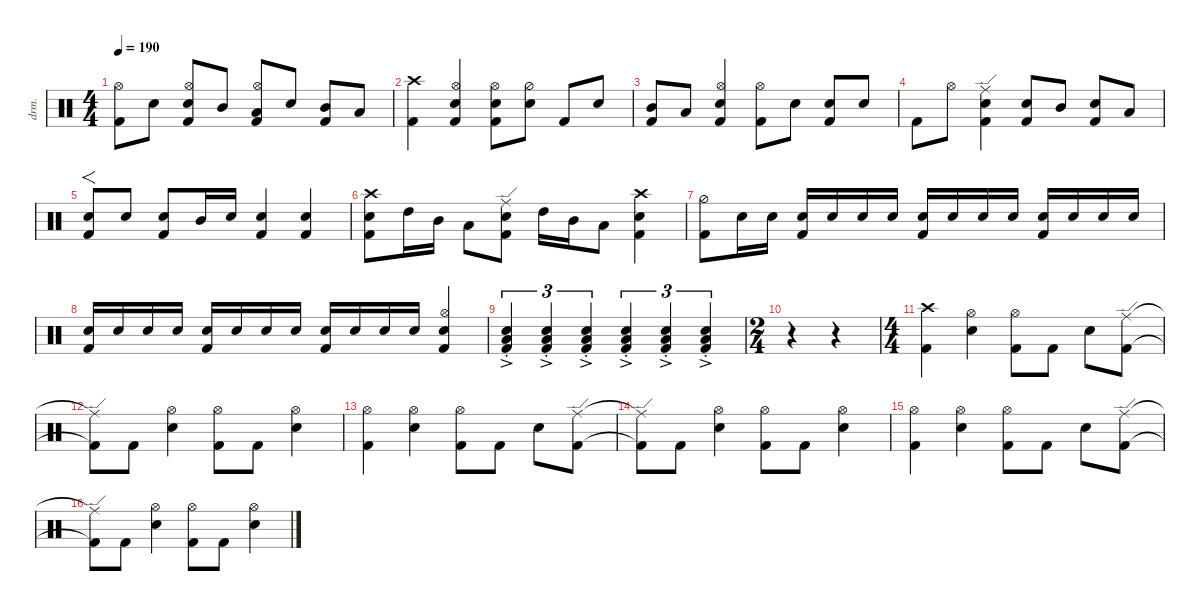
\defaultSystemsLayout 4
\hideDynamics
\bracketExtendMode nobrackets
\track ("Drumkit" "drm.") {instrument percussion}
\staff {score}
\articulation defaults
\ts (4 4)
\tempo 190
\clef neutral
\ks c
("Kick (hit) 2" "Hi-Hat (open)").8{dy mf} "Snare (hit) 2".8 ("Kick (hit) 2" "Snare (hit) 2" "Hi-Hat (open)").8 "Mid Tom (hit)".8 ("Kick (hit) 2" "Low Tom (hit)" "Hi-Hat (open)").8 "Snare (hit) 2".8 ("Kick (hit) 2" "Mid Tom (hit)").8 "Low Tom (hit)".8 |
("Kick (hit) 2" "Crash high (hit)").4 ("Kick (hit) 2" "Snare (hit) 2" "Hi-Hat (open)").4 ("Kick (hit) 2" "Snare (hit) 2" "Hi-Hat (open)").8 ("Snare (hit) 2" "Hi-Hat (half)").8 "Kick (hit) 2".8 "Snare (hit) 2".8 |
("Kick (hit) 2" "Mid Tom (hit)").8 "Low Tom (hit)".8 ("Kick (hit) 2" "Snare (hit) 2" "Hi-Hat (open)").4 ("Kick (hit) 2" "Hi-Hat (open)").8 "Snare (hit) 2".8 ("Kick (hit) 2" "Snare (hit) 2").8 "Snare (hit) 2".8 |
"Kick (hit) 2".8 "Hi-Hat (open)".8 ("Kick (hit) 2" "Snare (hit) 2" "Ride (edge)").4 ("Kick (hit) 2" "Snare (hit) 2").8 "Mid Tom (hit)".8 ("Kick (hit) 2" "Snare (hit) 2").8 "Low Tom (hit)".8 |
("Kick (hit) 2" "Snare (hit) 2").8{f} "Snare (hit) 2".8 ("Kick (hit) 2" "Snare (hit) 2").8 "Mid Tom (hit)".16 "Snare (hit) 2".16 ("Kick (hit) 2" "Snare (hit) 2").4 ("Kick (hit) 2" "Snare (hit) 2").4 |
("Kick (hit) 2" "Snare (hit) 2" "Crash high (hit)").8 "High Tom (hit)".16 "Mid Tom (hit)".16 "Low Tom (hit)".8 ("Kick (hit) 2" "Snare (hit) 2" "Ride (edge)").8 "High Tom (hit)".16 "Mid Tom (hit)".16 "Low Tom (hit)".8 ("Kick (hit) 2" "Snare (hit) 2" "Crash high (hit)").4 |
("Kick (hit) 2" "Hi-Hat (half)").8 "Snare (hit) 2".16 "Snare (hit) 2".16 ("Snare (hit) 2" "Kick (hit) 2").16 "Snare (hit) 2".16 "Snare (hit) 2".16 "Snare (hit) 2".16 ("Snare (hit) 2" "Kick (hit) 2").16 "Snare (hit) 2".16 "Snare (hit) 2".16 "Snare (hit) 2".16 ("Snare (hit) 2" "Kick (hit) 2").16 "Snare (hit) 2".16 "Snare (hit) 2".16 "Snare (hit) 2".16 |
("Snare (hit) 2" "Kick (hit) 2").16 "Snare (hit) 2".16 "Snare (hit) 2".16 "Snare (hit) 2".16 ("Snare (hit) 2" "Kick (hit) 2").16 "Snare (hit) 2".16 "Snare (hit) 2".16 "Snare (hit) 2".16 ("Snare (hit) 2" "Kick (hit) 2").16 "Snare (hit) 2".16 "Snare (hit) 2".16 "Snare (hit) 2".16 ("Kick (hit) 2" "Snare (hit) 2" "Hi-Hat (open)").4 |
("Snare (hit) 2"{ac st} "Low Tom (hit)"{ac st} "Kick (hit) 2"{ac st}).4{tu (3 2) dy p} ("Snare (hit) 2"{ac st} "Low Tom (hit)"{ac st} "Kick (hit) 2"{ac st}).4{tu (3 2)} ("Snare (hit) 2"{ac st} "Low Tom (hit)"{ac st} "Kick (hit) 2"{ac st}).4{tu (3 2)} ("Snare (hit) 2"{ac st} "Low Tom (hit)"{ac st} "Kick (hit) 2"{ac st}).4{tu (3 2)} ("Snare (hit) 2"{ac st} "Low Tom (hit)"{ac st} "Kick (hit) 2"{ac st}).4{tu (3 2)} ("Snare (hit) 2"{ac st} "Low Tom (hit)"{ac st} "Kick (hit) 2"{ac st}).4{tu (3 2)} |
\ts (2 4)
\beaming (8 2 2 2 2)
r.4 r.4 |
\ts (4 4)
\beaming (8 2 2 2 2)
("Crash high (hit)" "Kick (hit) 2").4{dy mf} ("Hi-Hat (open)" "Snare (hit) 2").4 ("Hi-Hat (open)" "Kick (hit) 2").8 "Kick (hit) 2".8 "Snare (hit) 2".8 ("Ride (edge)" "Kick (hit) 2").8 |
("Ride (edge)"{t} "Kick (hit) 2"{t}).8 "Kick (hit) 2".8 ("Hi-Hat (open)" "Snare (hit) 2").4 ("Hi-Hat (open)" "Kick (hit) 2").8 "Kick (hit) 2".8 ("Hi-Hat (open)" "Snare (hit) 2").4 |
("Kick (hit) 2" "Hi-Hat (open)").4 ("Hi-Hat (open)" "Snare (hit) 2").4 ("Hi-Hat (open)" "Kick (hit) 2").8 "Kick (hit) 2".8 "Snare (hit) 2".8 ("Ride (edge)" "Kick (hit) 2").8 |
("Ride (edge)"{t} "Kick (hit) 2"{t}).8 "Kick (hit) 2".8 ("Hi-Hat (open)" "Snare (hit) 2").4 ("Hi-Hat (open)" "Kick (hit) 2").8 "Kick (hit) 2".8 ("Hi-Hat (open)" "Snare (hit) 2").4 |
("Kick (hit) 2" "Hi-Hat (open)").4 ("Hi-Hat (open)" "Snare (hit) 2").4 ("Hi-Hat (open)" "Kick (hit) 2").8 "Kick (hit) 2".8 "Snare (hit) 2".8 ("Ride (edge)" "Kick (hit) 2").8 |
("Ride (edge)"{t} "Kick (hit) 2"{t}).8 "Kick (hit) 2".8 ("Hi-Hat (open)" "Snare (hit) 2").4 ("Hi-Hat (open)" "Kick (hit) 2").8 "Kick (hit) 2".8 ("Hi-Hat (open)" "Snare (hit) 2").4
